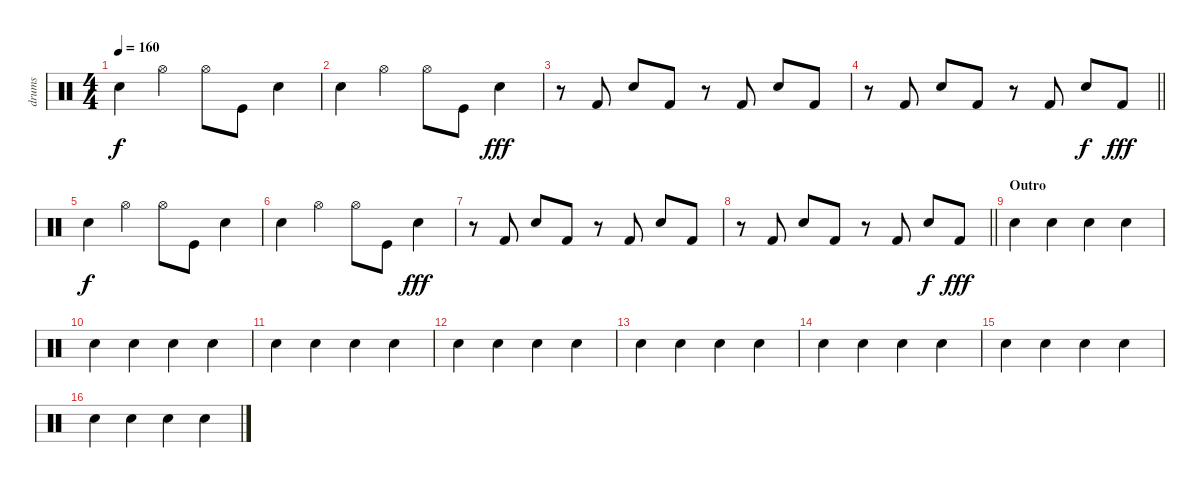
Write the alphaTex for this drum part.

\track ("drums" "drums") {instrument percussion}
\staff {score}
\articulation defaults
\ts (4 4)
\tempo 160
\clef neutral
\ks c "Snare (hit) 2".4{dy f} "Hi-Hat (open)".4 "Hi-Hat (open)".8 "Kick (hit)".8 "Snare (hit) 2".4
|
"Snare (hit) 2".4 "Hi-Hat (open)".4 "Hi-Hat (open)".8 "Kick (hit)".8 "Snare (hit) 2".4{dy fff} |
r.8 "Kick (hit) 2".8 "Snare (hit) 2".8 "Kick (hit) 2".8 r.8 "Kick (hit) 2".8 "Snare (hit) 2".8 "Kick (hit) 2".8 |
\barLineRight lightlight
r.8 "Kick (hit) 2".8 "Snare (hit) 2".8 "Kick (hit) 2".8 r.8 "Kick (hit) 2".8 "Snare (hit) 2".8{dy f} "Kick (hit) 2".8{dy fff} |
"Snare (hit) 2".4{dy f} "Hi-Hat (open)".4 "Hi-Hat (open)".8 "Kick (hit)".8 "Snare (hit) 2".4 |
"Snare (hit) 2".4 "Hi-Hat (open)".4 "Hi-Hat (open)".8 "Kick (hit)".8 "Snare (hit) 2".4{dy fff} |
r.8 "Kick (hit) 2".8 "Snare (hit) 2".8 "Kick (hit) 2".8 r.8 "Kick (hit) 2".8 "Snare (hit) 2".8 "Kick (hit) 2".8 |
\barLineRight lightlight
r.8 "Kick (hit) 2".8 "Snare (hit) 2".8 "Kick (hit) 2".8 r.8 "Kick (hit) 2".8 "Snare (hit) 2".8{dy f} "Kick (hit) 2".8{dy fff} |
\section ("" "Outro")
"Electric Snare (hit)".4 "Electric Snare (hit)".4 "Electric Snare (hit)".4 "Electric Snare (hit)".4 |
"Electric Snare (hit)".4 "Electric Snare (hit)".4 "Electric Snare (hit)".4 "Electric Snare (hit)".4 |
"Electric Snare (hit)".4 "Electric Snare (hit)".4 "Electric Snare (hit)".4 "Electric Snare (hit)".4 |
"Electric Snare (hit)".4 "Electric Snare (hit)".4 "Electric Snare (hit)".4 "Electric Snare (hit)".4 |
"Electric Snare (hit)".4 "Electric Snare (hit)".4 "Electric Snare (hit)".4 "Electric Snare (hit)".4 |
"Electric Snare (hit)".4 "Electric Snare (hit)".4 "Electric Snare (hit)".4 "Electric Snare (hit)".4 |
"Electric Snare (hit)".4 "Electric Snare (hit)".4 "Electric Snare (hit)".4 "Electric Snare (hit)".4 |
"Electric Snare (hit)".4 "Electric Snare (hit)".4 "Electric Snare (hit)".4 "Electric Snare (hit)".4
